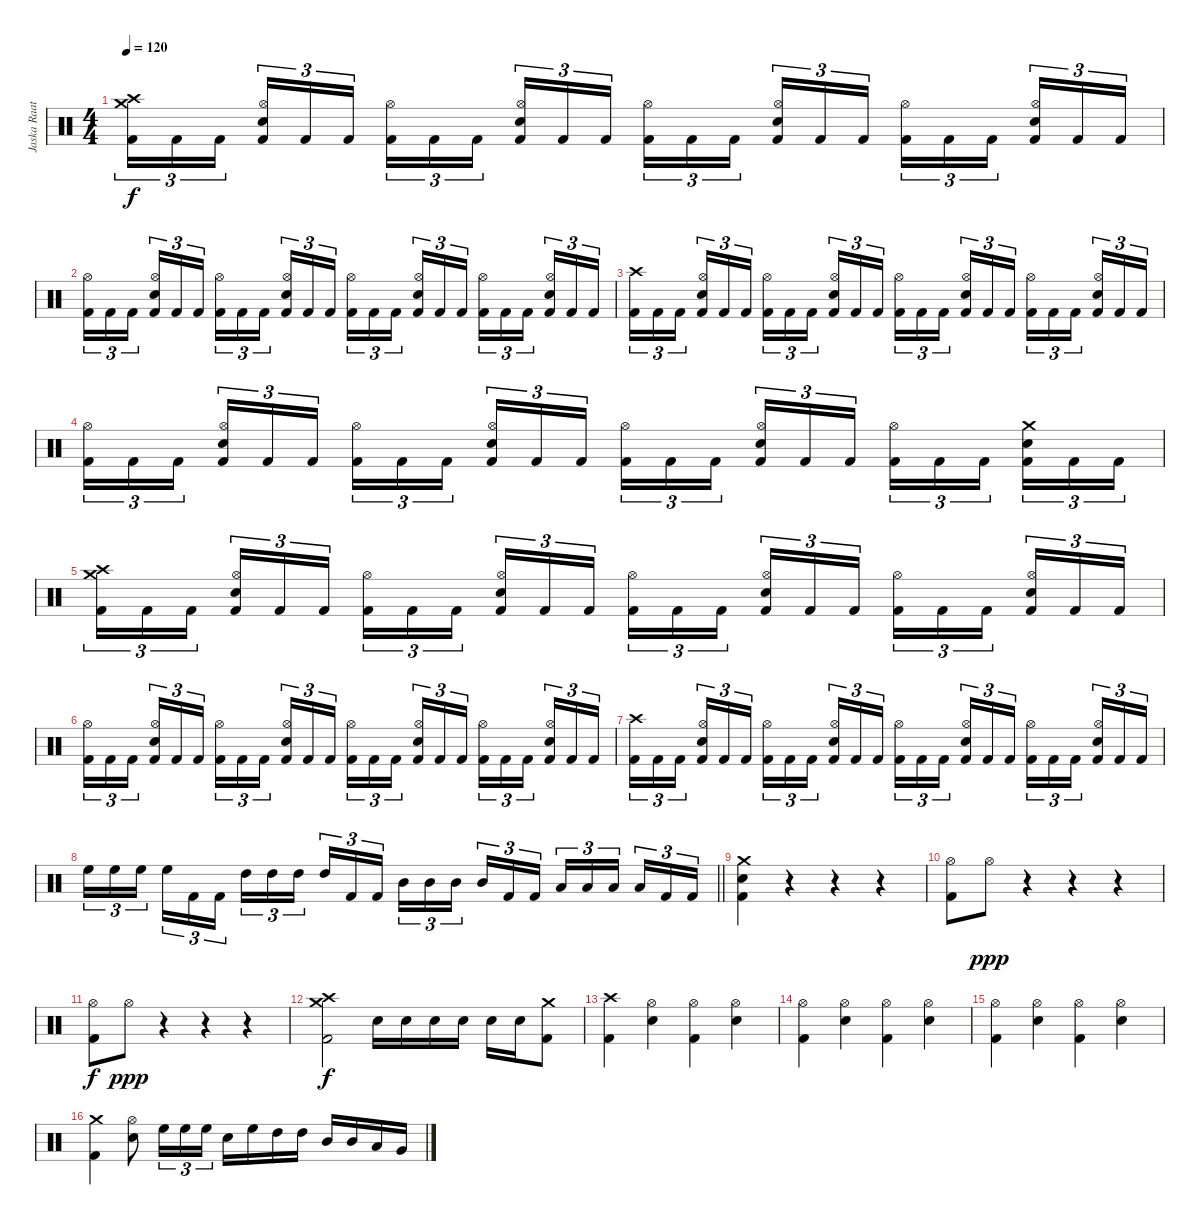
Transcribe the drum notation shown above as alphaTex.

\track ("Jaska Raatikainen" "Jaska Raat") {instrument percussion}
\staff {score}
\articulation defaults
\ts (4 4)
\tempo 120
\clef neutral
\ks c
("Crash high (hit)" "Crash medium (hit)" "Kick (hit) 2").16{tu (3 2) dy f} "Kick (hit) 2".16{tu (3 2)} "Kick (hit) 2".16{tu (3 2)} ("Hi-Hat (open)" "Electric Snare (hit)" "Kick (hit) 2").16{tu (3 2)} "Kick (hit) 2".16{tu (3 2)} "Kick (hit) 2".16{tu (3 2)} ("Hi-Hat (open)" "Kick (hit) 2").16{tu (3 2)} "Kick (hit) 2".16{tu (3 2)} "Kick (hit) 2".16{tu (3 2)} ("Hi-Hat (open)" "Electric Snare (hit)" "Kick (hit) 2").16{tu (3 2)} "Kick (hit) 2".16{tu (3 2)} "Kick (hit) 2".16{tu (3 2)} ("Hi-Hat (open)" "Kick (hit) 2").16{tu (3 2)} "Kick (hit) 2".16{tu (3 2)} "Kick (hit) 2".16{tu (3 2)} ("Hi-Hat (open)" "Electric Snare (hit)" "Kick (hit) 2").16{tu (3 2)} "Kick (hit) 2".16{tu (3 2)} "Kick (hit) 2".16{tu (3 2)} ("Hi-Hat (open)" "Kick (hit) 2").16{tu (3 2)} "Kick (hit) 2".16{tu (3 2)} "Kick (hit) 2".16{tu (3 2)} ("Hi-Hat (open)" "Electric Snare (hit)" "Kick (hit) 2").16{tu (3 2)} "Kick (hit) 2".16{tu (3 2)} "Kick (hit) 2".16{tu (3 2)} |
("Hi-Hat (open)" "Kick (hit) 2").16{tu (3 2)} "Kick (hit) 2".16{tu (3 2)} "Kick (hit) 2".16{tu (3 2)} ("Hi-Hat (open)" "Electric Snare (hit)" "Kick (hit) 2").16{tu (3 2)} "Kick (hit) 2".16{tu (3 2)} "Kick (hit) 2".16{tu (3 2)} ("Hi-Hat (open)" "Kick (hit) 2").16{tu (3 2)} "Kick (hit) 2".16{tu (3 2)} "Kick (hit) 2".16{tu (3 2)} ("Hi-Hat (open)" "Electric Snare (hit)" "Kick (hit) 2").16{tu (3 2)} "Kick (hit) 2".16{tu (3 2)} "Kick (hit) 2".16{tu (3 2)} ("Hi-Hat (open)" "Kick (hit) 2").16{tu (3 2)} "Kick (hit) 2".16{tu (3 2)} "Kick (hit) 2".16{tu (3 2)} ("Hi-Hat (open)" "Electric Snare (hit)" "Kick (hit) 2").16{tu (3 2)} "Kick (hit) 2".16{tu (3 2)} "Kick (hit) 2".16{tu (3 2)} ("Hi-Hat (open)" "Kick (hit) 2").16{tu (3 2)} "Kick (hit) 2".16{tu (3 2)} "Kick (hit) 2".16{tu (3 2)} ("Hi-Hat (open)" "Electric Snare (hit)" "Kick (hit) 2").16{tu (3 2)} "Kick (hit) 2".16{tu (3 2)} "Kick (hit) 2".16{tu (3 2)} |
("Crash high (hit)" "Kick (hit) 2").16{tu (3 2)} "Kick (hit) 2".16{tu (3 2)} "Kick (hit) 2".16{tu (3 2)} ("Hi-Hat (open)" "Electric Snare (hit)" "Kick (hit) 2").16{tu (3 2)} "Kick (hit) 2".16{tu (3 2)} "Kick (hit) 2".16{tu (3 2)} ("Hi-Hat (open)" "Kick (hit) 2").16{tu (3 2)} "Kick (hit) 2".16{tu (3 2)} "Kick (hit) 2".16{tu (3 2)} ("Hi-Hat (open)" "Electric Snare (hit)" "Kick (hit) 2").16{tu (3 2)} "Kick (hit) 2".16{tu (3 2)} "Kick (hit) 2".16{tu (3 2)} ("Hi-Hat (open)" "Kick (hit) 2").16{tu (3 2)} "Kick (hit) 2".16{tu (3 2)} "Kick (hit) 2".16{tu (3 2)} ("Hi-Hat (open)" "Electric Snare (hit)" "Kick (hit) 2").16{tu (3 2)} "Kick (hit) 2".16{tu (3 2)} "Kick (hit) 2".16{tu (3 2)} ("Hi-Hat (open)" "Kick (hit) 2").16{tu (3 2)} "Kick (hit) 2".16{tu (3 2)} "Kick (hit) 2".16{tu (3 2)} ("Hi-Hat (open)" "Electric Snare (hit)" "Kick (hit) 2").16{tu (3 2)} "Kick (hit) 2".16{tu (3 2)} "Kick (hit) 2".16{tu (3 2)} |
("Hi-Hat (open)" "Kick (hit) 2").16{tu (3 2)} "Kick (hit) 2".16{tu (3 2)} "Kick (hit) 2".16{tu (3 2)} ("Hi-Hat (open)" "Electric Snare (hit)" "Kick (hit) 2").16{tu (3 2)} "Kick (hit) 2".16{tu (3 2)} "Kick (hit) 2".16{tu (3 2)} ("Hi-Hat (open)" "Kick (hit) 2").16{tu (3 2)} "Kick (hit) 2".16{tu (3 2)} "Kick (hit) 2".16{tu (3 2)} ("Hi-Hat (open)" "Electric Snare (hit)" "Kick (hit) 2").16{tu (3 2)} "Kick (hit) 2".16{tu (3 2)} "Kick (hit) 2".16{tu (3 2)} ("Hi-Hat (open)" "Kick (hit) 2").16{tu (3 2)} "Kick (hit) 2".16{tu (3 2)} "Kick (hit) 2".16{tu (3 2)} ("Hi-Hat (open)" "Electric Snare (hit)" "Kick (hit) 2").16{tu (3 2)} "Kick (hit) 2".16{tu (3 2)} "Kick (hit) 2".16{tu (3 2)} ("Hi-Hat (open)" "Kick (hit) 2").16{tu (3 2)} "Kick (hit) 2".16{tu (3 2)} "Kick (hit) 2".16{tu (3 2)} ("Crash medium (hit)" "Electric Snare (hit)" "Kick (hit) 2").16{tu (3 2)} "Kick (hit) 2".16{tu (3 2)} "Kick (hit) 2".16{tu (3 2)} |
("Crash high (hit)" "Crash medium (hit)" "Kick (hit) 2").16{tu (3 2)} "Kick (hit) 2".16{tu (3 2)} "Kick (hit) 2".16{tu (3 2)} ("Hi-Hat (open)" "Electric Snare (hit)" "Kick (hit) 2").16{tu (3 2)} "Kick (hit) 2".16{tu (3 2)} "Kick (hit) 2".16{tu (3 2)} ("Hi-Hat (open)" "Kick (hit) 2").16{tu (3 2)} "Kick (hit) 2".16{tu (3 2)} "Kick (hit) 2".16{tu (3 2)} ("Hi-Hat (open)" "Electric Snare (hit)" "Kick (hit) 2").16{tu (3 2)} "Kick (hit) 2".16{tu (3 2)} "Kick (hit) 2".16{tu (3 2)} ("Hi-Hat (open)" "Kick (hit) 2").16{tu (3 2)} "Kick (hit) 2".16{tu (3 2)} "Kick (hit) 2".16{tu (3 2)} ("Hi-Hat (open)" "Electric Snare (hit)" "Kick (hit) 2").16{tu (3 2)} "Kick (hit) 2".16{tu (3 2)} "Kick (hit) 2".16{tu (3 2)} ("Hi-Hat (open)" "Kick (hit) 2").16{tu (3 2)} "Kick (hit) 2".16{tu (3 2)} "Kick (hit) 2".16{tu (3 2)} ("Hi-Hat (open)" "Electric Snare (hit)" "Kick (hit) 2").16{tu (3 2)} "Kick (hit) 2".16{tu (3 2)} "Kick (hit) 2".16{tu (3 2)} |
("Hi-Hat (open)" "Kick (hit) 2").16{tu (3 2)} "Kick (hit) 2".16{tu (3 2)} "Kick (hit) 2".16{tu (3 2)} ("Hi-Hat (open)" "Electric Snare (hit)" "Kick (hit) 2").16{tu (3 2)} "Kick (hit) 2".16{tu (3 2)} "Kick (hit) 2".16{tu (3 2)} ("Hi-Hat (open)" "Kick (hit) 2").16{tu (3 2)} "Kick (hit) 2".16{tu (3 2)} "Kick (hit) 2".16{tu (3 2)} ("Hi-Hat (open)" "Electric Snare (hit)" "Kick (hit) 2").16{tu (3 2)} "Kick (hit) 2".16{tu (3 2)} "Kick (hit) 2".16{tu (3 2)} ("Hi-Hat (open)" "Kick (hit) 2").16{tu (3 2)} "Kick (hit) 2".16{tu (3 2)} "Kick (hit) 2".16{tu (3 2)} ("Hi-Hat (open)" "Electric Snare (hit)" "Kick (hit) 2").16{tu (3 2)} "Kick (hit) 2".16{tu (3 2)} "Kick (hit) 2".16{tu (3 2)} ("Hi-Hat (open)" "Kick (hit) 2").16{tu (3 2)} "Kick (hit) 2".16{tu (3 2)} "Kick (hit) 2".16{tu (3 2)} ("Hi-Hat (open)" "Electric Snare (hit)" "Kick (hit) 2").16{tu (3 2)} "Kick (hit) 2".16{tu (3 2)} "Kick (hit) 2".16{tu (3 2)} |
("Crash high (hit)" "Kick (hit) 2").16{tu (3 2)} "Kick (hit) 2".16{tu (3 2)} "Kick (hit) 2".16{tu (3 2)} ("Hi-Hat (open)" "Electric Snare (hit)" "Kick (hit) 2").16{tu (3 2)} "Kick (hit) 2".16{tu (3 2)} "Kick (hit) 2".16{tu (3 2)} ("Hi-Hat (open)" "Kick (hit) 2").16{tu (3 2)} "Kick (hit) 2".16{tu (3 2)} "Kick (hit) 2".16{tu (3 2)} ("Hi-Hat (open)" "Electric Snare (hit)" "Kick (hit) 2").16{tu (3 2)} "Kick (hit) 2".16{tu (3 2)} "Kick (hit) 2".16{tu (3 2)} ("Hi-Hat (open)" "Kick (hit) 2").16{tu (3 2)} "Kick (hit) 2".16{tu (3 2)} "Kick (hit) 2".16{tu (3 2)} ("Hi-Hat (open)" "Electric Snare (hit)" "Kick (hit) 2").16{tu (3 2)} "Kick (hit) 2".16{tu (3 2)} "Kick (hit) 2".16{tu (3 2)} ("Hi-Hat (open)" "Kick (hit) 2").16{tu (3 2)} "Kick (hit) 2".16{tu (3 2)} "Kick (hit) 2".16{tu (3 2)} ("Hi-Hat (open)" "Electric Snare (hit)" "Kick (hit) 2").16{tu (3 2)} "Kick (hit) 2".16{tu (3 2)} "Kick (hit) 2".16{tu (3 2)} |
\barLineRight lightlight "High Floor Tom (hit)".16{tu (3 2)} "High Floor Tom (hit)".16{tu (3 2)} "High Floor Tom (hit)".16{tu (3 2)} "High Floor Tom (hit)".16{tu (3 2)} "Kick (hit) 2".16{tu (3 2)} "Kick (hit) 2".16{tu (3 2)} "High Tom (hit)".16{tu (3 2)} "High Tom (hit)".16{tu (3 2)} "High Tom (hit)".16{tu (3 2)} "High Tom (hit)".16{tu (3 2)} "Kick (hit) 2".16{tu (3 2)} "Kick (hit) 2".16{tu (3 2)} "Mid Tom (hit)".16{tu (3 2)} "Mid Tom (hit)".16{tu (3 2)} "Mid Tom (hit)".16{tu (3 2)} "Mid Tom (hit)".16{tu (3 2)} "Kick (hit) 2".16{tu (3 2)} "Kick (hit) 2".16{tu (3 2)} "Low Tom (hit)".16{tu (3 2)} "Low Tom (hit)".16{tu (3 2)} "Low Tom (hit)".16{tu (3 2)} "Low Tom (hit)".16{tu (3 2)} "Kick (hit) 2".16{tu (3 2)} "Kick (hit) 2".16{tu (3 2)}
|
("Crash medium (hit)" "Electric Snare (hit)" "Kick (hit) 2").4 r.4 r.4 r.4 |
("Hi-Hat (open)" "Kick (hit) 2").8 "Hi-Hat (open)".8{dy ppp} r.4 r.4 r.4 |
("Hi-Hat (open)" "Kick (hit) 2").8{dy f} "Hi-Hat (open)".8{dy ppp} r.4 r.4 r.4 |
("Crash high (hit)" "Crash medium (hit)" "Kick (hit) 2").2{dy f} "Electric Snare (hit)".16 "Electric Snare (hit)".16 "Electric Snare (hit)".16 "Electric Snare (hit)".16 "Electric Snare (hit)".16 "Electric Snare (hit)".16 ("Crash medium (hit)" "Kick (hit) 2").8 |
("Crash high (hit)" "Kick (hit) 2").4 ("Hi-Hat (open)" "Electric Snare (hit)").4 ("Hi-Hat (open)" "Kick (hit) 2").4 ("Hi-Hat (open)" "Electric Snare (hit)").4 |
("Hi-Hat (open)" "Kick (hit) 2").4 ("Hi-Hat (open)" "Electric Snare (hit)").4 ("Hi-Hat (open)" "Kick (hit) 2").4 ("Hi-Hat (open)" "Electric Snare (hit)").4 |
("Hi-Hat (open)" "Kick (hit) 2").4 ("Hi-Hat (open)" "Electric Snare (hit)").4 ("Hi-Hat (open)" "Kick (hit) 2").4 ("Hi-Hat (open)" "Electric Snare (hit)").4 |
("Crash medium (hit)" "Kick (hit) 2").4 ("Hi-Hat (open)" "Electric Snare (hit)").8 "High Floor Tom (hit)".16{tu (3 2)} "High Floor Tom (hit)".16{tu (3 2)} "High Floor Tom (hit)".16{tu (3 2)} "Electric Snare (hit)".16 "High Floor Tom (hit)".16 "High Tom (hit)".16 "High Tom (hit)".16 "Mid Tom (hit)".16 "Mid Tom (hit)".16 "Low Tom (hit)".16 "Very Low Tom (hit)".16
